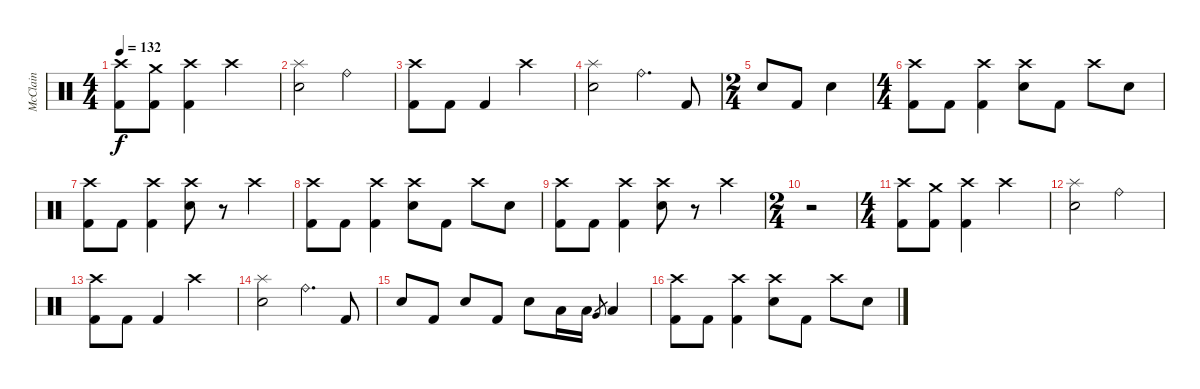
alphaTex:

\track ("McClain" "McClain") {instrument percussion}
\staff {score}
\articulation defaults
\ts (4 4)
\tempo 132
\clef neutral
\ks c
("Crash high (hit)" "Kick (hit) 2").8{dy f} ("Crash medium (hit)" "Kick (hit) 2").8 ("Crash high (hit)" "Kick (hit) 2").4 "Crash high (hit)".2 |
("Splash (hit)" "Electric Snare (hit)").2 "Ride (bell)".2 |
("Crash high (hit)" "Kick (hit) 2").8 "Kick (hit) 2".8 "Kick (hit) 2".4 "Crash high (hit)".2 |
("Splash (hit)" "Electric Snare (hit)").2 "Ride (bell)".4{d} "Kick (hit) 2".8 |
\ts (2 4)
"Electric Snare (hit)".8 "Kick (hit) 2".8 "Electric Snare (hit)".4 |
\ts (4 4)
("Crash high (hit)" "Kick (hit) 2").8 "Kick (hit) 2".8 ("Crash high (hit)" "Kick (hit) 2").4 ("Crash high (hit)" "Electric Snare (hit)").8 "Kick (hit) 2".8 "Crash high (hit)".8 "Electric Snare (hit)".8 |
("Crash high (hit)" "Kick (hit) 2").8 "Kick (hit) 2".8 ("Crash high (hit)" "Kick (hit) 2").4 ("Crash high (hit)" "Electric Snare (hit)").8 r.8 "Crash high (hit)".4 |
("Crash high (hit)" "Kick (hit) 2").8 "Kick (hit) 2".8 ("Crash high (hit)" "Kick (hit) 2").4 ("Crash high (hit)" "Electric Snare (hit)").8 "Kick (hit) 2".8 "Crash high (hit)".8 "Electric Snare (hit)".8 |
("Crash high (hit)" "Kick (hit) 2").8 "Kick (hit) 2".8 ("Crash high (hit)" "Kick (hit) 2").4 ("Crash high (hit)" "Electric Snare (hit)").8 r.8 "Crash high (hit)".4 |
\ts (2 4)
r.2 |
\ts (4 4)
("Crash high (hit)" "Kick (hit) 2").8 ("Crash medium (hit)" "Kick (hit) 2").8 ("Crash high (hit)" "Kick (hit) 2").4 "Crash high (hit)".2 |
("Splash (hit)" "Electric Snare (hit)").2 "Ride (bell)".2 |
("Crash high (hit)" "Kick (hit) 2").8 "Kick (hit) 2".8 "Kick (hit) 2".4 "Crash high (hit)".2 |
("Splash (hit)" "Electric Snare (hit)").2 "Ride (bell)".4{d} "Kick (hit) 2".8 |
"Electric Snare (hit)".8 "Kick (hit) 2".8 "Electric Snare (hit)".8 "Kick (hit) 2".8 "Electric Snare (hit)".8 "Low Tom (hit)".16 "Low Tom (hit)".16 "Very Low Tom (hit)".8{gr} "Low Floor Tom (hit)".4 |
("Crash high (hit)" "Kick (hit) 2").8 "Kick (hit) 2".8 ("Crash high (hit)" "Kick (hit) 2").4 ("Crash high (hit)" "Electric Snare (hit)").8 "Kick (hit) 2".8 "Crash high (hit)".8 "Electric Snare (hit)".8
